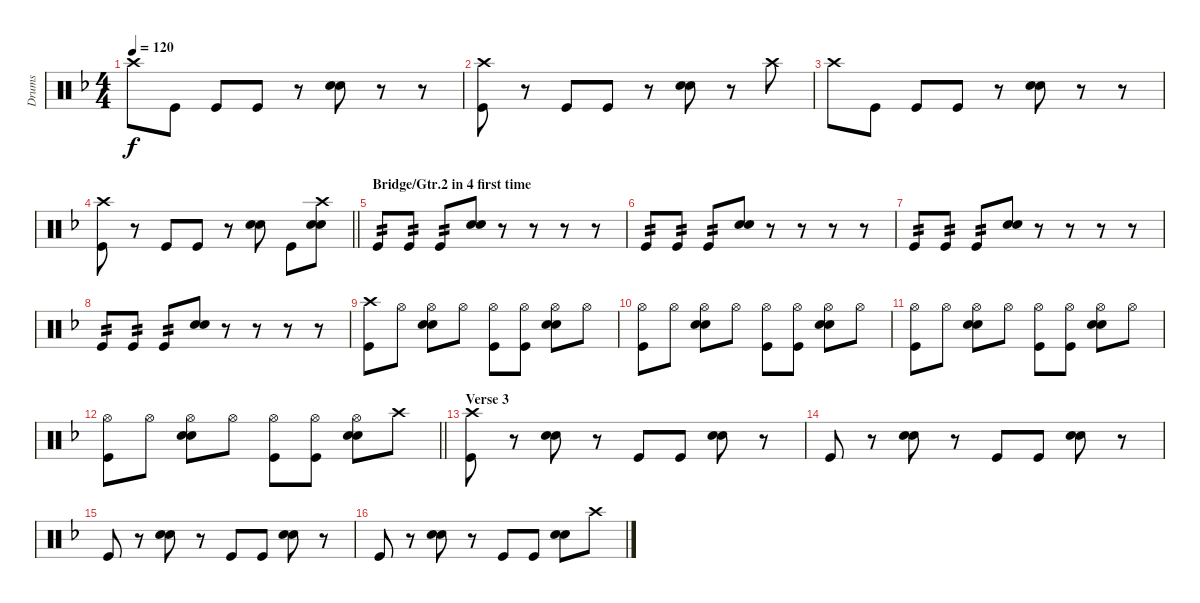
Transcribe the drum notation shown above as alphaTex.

\track ("Drums" "Drums") {instrument percussion}
\staff {score}
\articulation defaults
\ts (4 4)
\tempo 120
\clef neutral
\ks f "Crash high (hit)".8{dy f} "Kick (hit)".8 "Kick (hit)".8 "Kick (hit)".8
r.8 ("Electric Snare (hit)" "Snare (hit) 2").8 r.8 r.8 |
("Crash high (hit)" "Kick (hit)").8 r.8 "Kick (hit)".8 "Kick (hit)".8 r.8 ("Electric Snare (hit)" "Snare (hit) 2").8 r.8 "Crash high (hit)".8 |
"Crash high (hit)".8 "Kick (hit)".8 "Kick (hit)".8 "Kick (hit)".8 r.8 ("Electric Snare (hit)" "Snare (hit) 2").8 r.8 r.8 |
\barLineRight lightlight
("Crash high (hit)" "Kick (hit)").8 r.8 "Kick (hit)".8 "Kick (hit)".8 r.8 ("Electric Snare (hit)" "Snare (hit) 2").8 "Kick (hit)".8 ("Crash high (hit)" "Electric Snare (hit)" "Snare (hit) 2").8 |
\section ("" "Bridge/Gtr.2 in 4 first time")
"Kick (hit)".8{tp 2} "Kick (hit)".8{tp 2} "Kick (hit)".8{tp 2} ("Electric Snare (hit)" "Snare (hit) 2").8 r.8 r.8 r.8 r.8 |
"Kick (hit)".8{tp 2} "Kick (hit)".8{tp 2} "Kick (hit)".8{tp 2} ("Electric Snare (hit)" "Snare (hit) 2").8 r.8 r.8 r.8 r.8 |
"Kick (hit)".8{tp 2} "Kick (hit)".8{tp 2} "Kick (hit)".8{tp 2} ("Electric Snare (hit)" "Snare (hit) 2").8 r.8 r.8 r.8 r.8 |
"Kick (hit)".8{tp 2} "Kick (hit)".8{tp 2} "Kick (hit)".8{tp 2} ("Electric Snare (hit)" "Snare (hit) 2").8 r.8 r.8 r.8 r.8 |
("Crash high (hit)" "Kick (hit)").8 "Hi-Hat (open)".8 ("Hi-Hat (open)" "Electric Snare (hit)" "Snare (hit) 2").8 "Hi-Hat (open)".8 ("Hi-Hat (open)" "Kick (hit)").8 ("Hi-Hat (open)" "Kick (hit)").8 ("Hi-Hat (open)" "Electric Snare (hit)" "Snare (hit) 2").8 "Hi-Hat (open)".8 |
("Hi-Hat (open)" "Kick (hit)").8 "Hi-Hat (open)".8 ("Hi-Hat (open)" "Electric Snare (hit)" "Snare (hit) 2").8 "Hi-Hat (open)".8 ("Hi-Hat (open)" "Kick (hit)").8 ("Hi-Hat (open)" "Kick (hit)").8 ("Hi-Hat (open)" "Electric Snare (hit)" "Snare (hit) 2").8 "Hi-Hat (open)".8 |
("Hi-Hat (open)" "Kick (hit)").8 "Hi-Hat (open)".8 ("Hi-Hat (open)" "Electric Snare (hit)" "Snare (hit) 2").8 "Hi-Hat (open)".8 ("Hi-Hat (open)" "Kick (hit)").8 ("Hi-Hat (open)" "Kick (hit)").8 ("Hi-Hat (open)" "Electric Snare (hit)" "Snare (hit) 2").8 "Hi-Hat (open)".8 |
\barLineRight lightlight
("Hi-Hat (open)" "Kick (hit)").8 "Hi-Hat (open)".8 ("Hi-Hat (open)" "Electric Snare (hit)" "Snare (hit) 2").8 "Hi-Hat (open)".8 ("Hi-Hat (open)" "Kick (hit)").8 ("Hi-Hat (open)" "Kick (hit)").8 ("Hi-Hat (open)" "Electric Snare (hit)" "Snare (hit) 2").8 "Crash high (hit)".8 |
\section ("" "Verse 3")
("Crash high (hit)" "Kick (hit)").8{volume 10} r.8 ("Electric Snare (hit)" "Snare (hit) 2").8 r.8 "Kick (hit)".8 "Kick (hit)".8 ("Electric Snare (hit)" "Snare (hit) 2").8 r.8 |
"Kick (hit)".8 r.8 ("Electric Snare (hit)" "Snare (hit) 2").8 r.8 "Kick (hit)".8 "Kick (hit)".8 ("Electric Snare (hit)" "Snare (hit) 2").8 r.8 |
"Kick (hit)".8 r.8 ("Electric Snare (hit)" "Snare (hit) 2").8 r.8 "Kick (hit)".8 "Kick (hit)".8 ("Electric Snare (hit)" "Snare (hit) 2").8 r.8 |
"Kick (hit)".8 r.8 ("Electric Snare (hit)" "Snare (hit) 2").8 r.8 "Kick (hit)".8 "Kick (hit)".8 ("Electric Snare (hit)" "Snare (hit) 2").8 "Crash high (hit)".8
